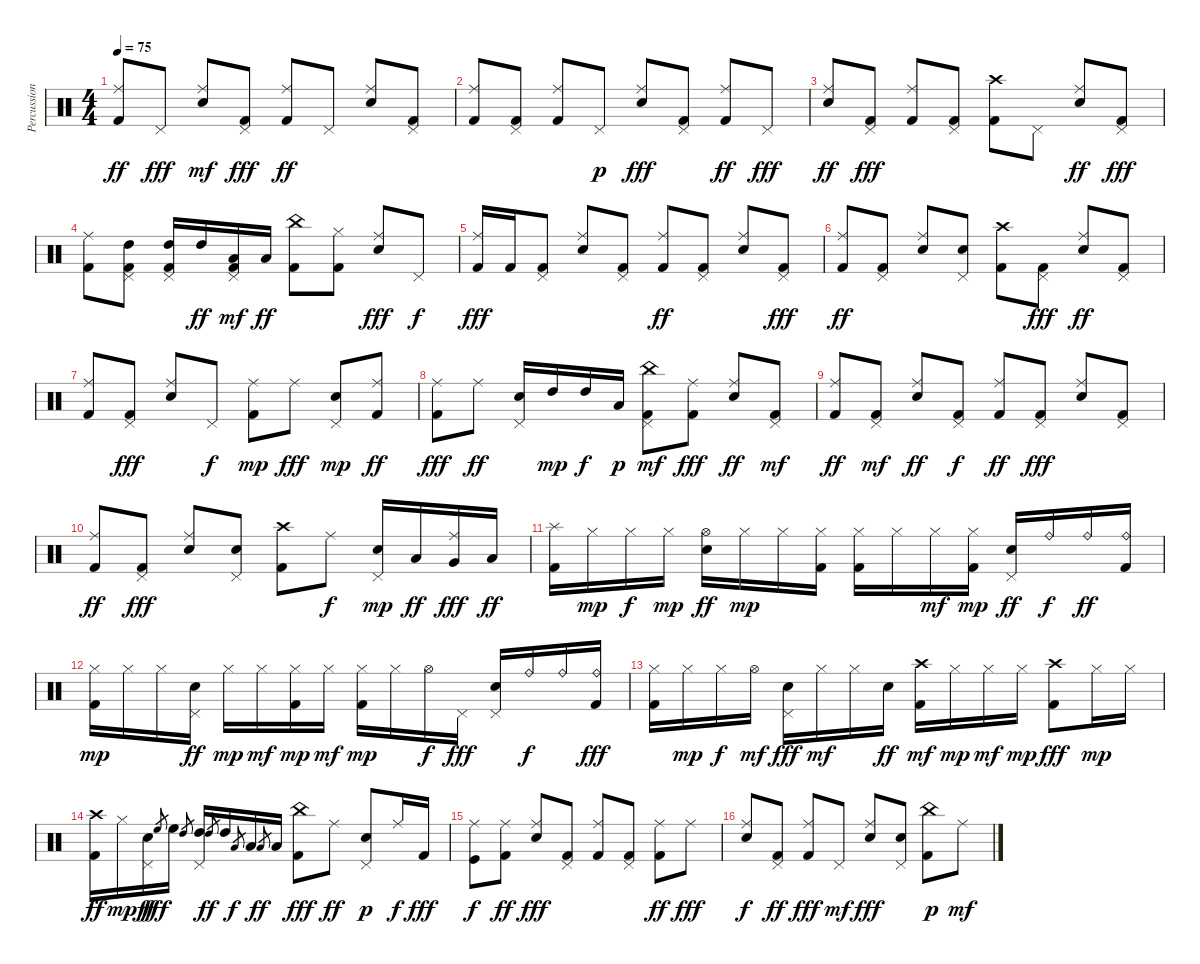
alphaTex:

\track ("Percussion" "Percussion") {instrument percussion}
\staff {score}
\articulation defaults
\ts (4 4)
\tempo 75
\clef neutral
\ks c
("Kick (hit) 2" "Ride (middle)").8{dy ff} "Pedal Hi-Hat (hit)".8{dy fff} ("Snare (hit) 2" "Ride (middle)").8{dy mf} ("Kick (hit) 2" "Pedal Hi-Hat (hit)").8{dy fff} ("Kick (hit) 2" "Ride (middle)").8{dy ff} "Pedal Hi-Hat (hit)".8 ("Snare (hit) 2" "Ride (middle)").8 ("Kick (hit) 2" "Pedal Hi-Hat (hit)").8 |
("Kick (hit) 2" "Ride (middle)").8 ("Kick (hit) 2" "Pedal Hi-Hat (hit)").8 ("Kick (hit) 2" "Ride (middle)").8 "Pedal Hi-Hat (hit)".8{dy p} ("Snare (hit) 2" "Ride (middle)").8{dy fff} ("Kick (hit) 2" "Pedal Hi-Hat (hit)").8 ("Kick (hit) 2" "Ride (middle)").8{dy ff} "Pedal Hi-Hat (hit)".8{dy fff} |
("Snare (hit) 2" "Ride (middle)").8{dy ff} ("Kick (hit) 2" "Pedal Hi-Hat (hit)").8{dy fff} ("Kick (hit) 2" "Ride (middle)").8 ("Kick (hit) 2" "Pedal Hi-Hat (hit)").8 ("Kick (hit) 2" "Crash high (hit)").8 "Pedal Hi-Hat (hit)".8 ("Snare (hit) 2" "Ride (middle)").8{dy ff} ("Kick (hit) 2" "Pedal Hi-Hat (hit)").8{dy fff} |
("Kick (hit) 2" "Ride (middle)").8 ("Kick (hit) 2" "High Tom (hit)" "Pedal Hi-Hat (hit)").8 ("Pedal Hi-Hat (hit)" "High Tom (hit)" "Kick (hit) 2").16 "High Tom (hit)".16{dy ff} ("Kick (hit) 2" "Low Tom (hit)" "Pedal Hi-Hat (hit)").16{dy mf} "Low Tom (hit)".16{dy ff} ("Kick (hit) 2" "China (hit)").8 ("Kick (hit) 2" "Hi-Hat (closed)").8 ("Snare (hit) 2" "Ride (middle)").8{dy fff} "Pedal Hi-Hat (hit)".8{dy f} |
("Kick (hit) 2" "Ride (middle)").16{dy fff} "Kick (hit) 2".16 ("Kick (hit) 2" "Pedal Hi-Hat (hit)").8 ("Snare (hit) 2" "Ride (middle)").8 ("Kick (hit) 2" "Pedal Hi-Hat (hit)").8 ("Kick (hit) 2" "Ride (middle)").8{dy ff} ("Kick (hit) 2" "Pedal Hi-Hat (hit)").8 ("Snare (hit) 2" "Ride (middle)").8 ("Kick (hit) 2" "Pedal Hi-Hat (hit)").8{dy fff} |
("Kick (hit) 2" "Ride (middle)").8{dy ff} ("Kick (hit) 2" "Pedal Hi-Hat (hit)").8 ("Snare (hit) 2" "Ride (middle)").8 ("Snare (hit) 2" "Pedal Hi-Hat (hit)").8 ("Kick (hit) 2" "Crash high (hit)").8 ("Kick (hit) 2" "Pedal Hi-Hat (hit)").8{dy fff} ("Snare (hit) 2" "Ride (middle)").8{dy ff} ("Kick (hit) 2" "Pedal Hi-Hat (hit)").8 |
("Kick (hit) 2" "Ride (middle)").8 ("Kick (hit) 2" "Pedal Hi-Hat (hit)").8{dy fff} ("Snare (hit) 2" "Ride (middle)").8 "Pedal Hi-Hat (hit)".8{dy f} ("Kick (hit) 2" "Ride (middle)").8{dy mp} "Ride (middle)".8{dy fff} ("Snare (hit) 2" "Pedal Hi-Hat (hit)").8{dy mp} ("Kick (hit) 2" "Ride (middle)").8{dy ff} |
("Kick (hit) 2" "Ride (middle)").8{dy fff} "Ride (middle)".8{dy ff} ("Snare (hit) 2" "Pedal Hi-Hat (hit)").16 "High Tom (hit)".16{dy mp} "High Tom (hit)".16{dy f} "Low Floor Tom (hit)".16{dy p} ("Kick (hit) 2" "China (hit)" "Pedal Hi-Hat (hit)").8{dy mf} ("Kick (hit) 2" "Ride (middle)").8{dy fff} ("Snare (hit) 2" "Ride (middle)").8{dy ff} ("Kick (hit) 2" "Pedal Hi-Hat (hit)").8{dy mf} |
("Kick (hit) 2" "Ride (middle)").8{dy ff} ("Kick (hit) 2" "Pedal Hi-Hat (hit)").8{dy mf} ("Snare (hit) 2" "Ride (middle)").8{dy ff} ("Kick (hit) 2" "Pedal Hi-Hat (hit)").8{dy f} ("Kick (hit) 2" "Ride (middle)").8{dy ff} ("Kick (hit) 2" "Pedal Hi-Hat (hit)").8{dy fff} ("Snare (hit) 2" "Ride (middle)").8 ("Kick (hit) 2" "Pedal Hi-Hat (hit)").8 |
("Kick (hit) 2" "Ride (middle)").8{dy ff} ("Kick (hit) 2" "Pedal Hi-Hat (hit)").8{dy fff} ("Snare (hit) 2" "Ride (middle)").8 ("Snare (hit) 2" "Pedal Hi-Hat (hit)").8 ("Kick (hit) 2" "Crash high (hit)").8 "Ride (middle)".8{dy f} ("Snare (hit) 2" "Pedal Hi-Hat (hit)").16{dy mp} "Low Tom (hit)".16{dy ff} ("Very Low Tom (hit)" "Ride (middle)").16{dy fff} "Low Floor Tom (hit)".16{dy ff} |
("Kick (hit) 2" "Splash (hit)").16 "Hi-Hat (closed)".16{dy mp} "Hi-Hat (closed)".16{dy f} "Hi-Hat (closed)".16{dy mp} ("Snare (hit) 2" "Hi-Hat (open)").16{dy ff} "Hi-Hat (closed)".16{dy mp} "Hi-Hat (closed)".16 ("Kick (hit) 2" "Hi-Hat (closed)").16 ("Kick (hit) 2" "Hi-Hat (closed)").16 "Hi-Hat (closed)".16 "Hi-Hat (closed)".16{dy mf} ("Kick (hit) 2" "Hi-Hat (closed)").16{dy mp} ("Snare (hit) 2" "Pedal Hi-Hat (hit)").16{dy ff} "Ride (bell)".16{dy f} "Ride (bell)".16{dy ff} ("Kick (hit) 2" "Ride (bell)").16 |
("Kick (hit) 2" "Hi-Hat (closed)").16{dy mp} "Hi-Hat (closed)".16 "Hi-Hat (closed)".16 ("Snare (hit) 2" "Pedal Hi-Hat (hit)").16{dy ff} "Hi-Hat (closed)".16{dy mp} "Hi-Hat (closed)".16{dy mf} ("Kick (hit) 2" "Hi-Hat (closed)").16{dy mp} "Hi-Hat (closed)".16{dy mf} ("Kick (hit) 2" "Hi-Hat (closed)").16{dy mp} "Hi-Hat (closed)".16 "Hi-Hat (open)".16{dy f} "Pedal Hi-Hat (hit)".16{dy fff} ("Snare (hit) 2" "Pedal Hi-Hat (hit)").16 "Ride (bell)".16{dy f} "Ride (bell)".16 ("Kick (hit) 2" "Ride (bell)").16{dy fff} |
("Kick (hit) 2" "Hi-Hat (closed)").16 "Hi-Hat (closed)".16{dy mp} "Hi-Hat (closed)".16{dy f} "Hi-Hat (open)".16{dy mf} ("Snare (hit) 2" "Pedal Hi-Hat (hit)").16{dy fff} "Hi-Hat (closed)".16{dy mf} "Hi-Hat (closed)".16 "Snare (hit) 2".16{dy ff} ("Kick (hit) 2" "Crash high (hit)").16{dy mf} "Hi-Hat (closed)".16{dy mp} "Hi-Hat (closed)".16{dy mf} "Hi-Hat (closed)".16{dy mp} ("Kick (hit) 2" "Crash high (hit)").8{dy fff} "Hi-Hat (closed)".16{dy mp} "Hi-Hat (closed)".16 |
("Kick (hit) 2" "Crash high (hit)").16{dy ff} "Hi-Hat (closed)".16{dy mp} ("Snare (hit) 2" "Pedal Hi-Hat (hit)").16{dy ff} "High Floor Tom (hit)".8{gr dy fff} "High Floor Tom (hit)".16 "High Tom (hit)".8{gr} ("High Tom (hit)" "Pedal Hi-Hat (hit)").16 "High Tom (hit)".8{gr dy ff} "High Tom (hit)".16 "Low Tom (hit)".8{gr dy f} "Low Tom (hit)".16 "Low Floor Tom (hit)".8{gr dy ff} "Low Floor Tom (hit)".16 ("Kick (hit) 2" "China (hit)").8{dy fff} "Ride (middle)".8{dy ff} ("Snare (hit) 2" "Pedal Hi-Hat (hit)").8{dy p} "Ride (middle)".16{dy f} "Kick (hit) 2".16{dy fff} |
("Kick (hit)" "Ride (middle)").8{dy f} ("Kick (hit) 2" "Ride (middle)").8{dy ff} ("Snare (hit) 2" "Ride (middle)").8{dy fff} ("Kick (hit) 2" "Pedal Hi-Hat (hit)").8 ("Kick (hit) 2" "Ride (middle)").8 ("Kick (hit) 2" "Pedal Hi-Hat (hit)").8 ("Kick (hit) 2" "Ride (middle)").8{dy ff} "Ride (middle)".8{dy fff} |
("Snare (hit) 2" "Ride (middle)").8{dy f} ("Kick (hit) 2" "Pedal Hi-Hat (hit)").8{dy ff} ("Kick (hit) 2" "Ride (middle)").8{dy fff} "Pedal Hi-Hat (hit)".8{dy mf} ("Snare (hit) 2" "Ride (middle)").8{dy fff} ("Snare (hit) 2" "Pedal Hi-Hat (hit)").8 ("Kick (hit) 2" "China (hit)").8{dy p} "Ride (middle)".8{dy mf}
